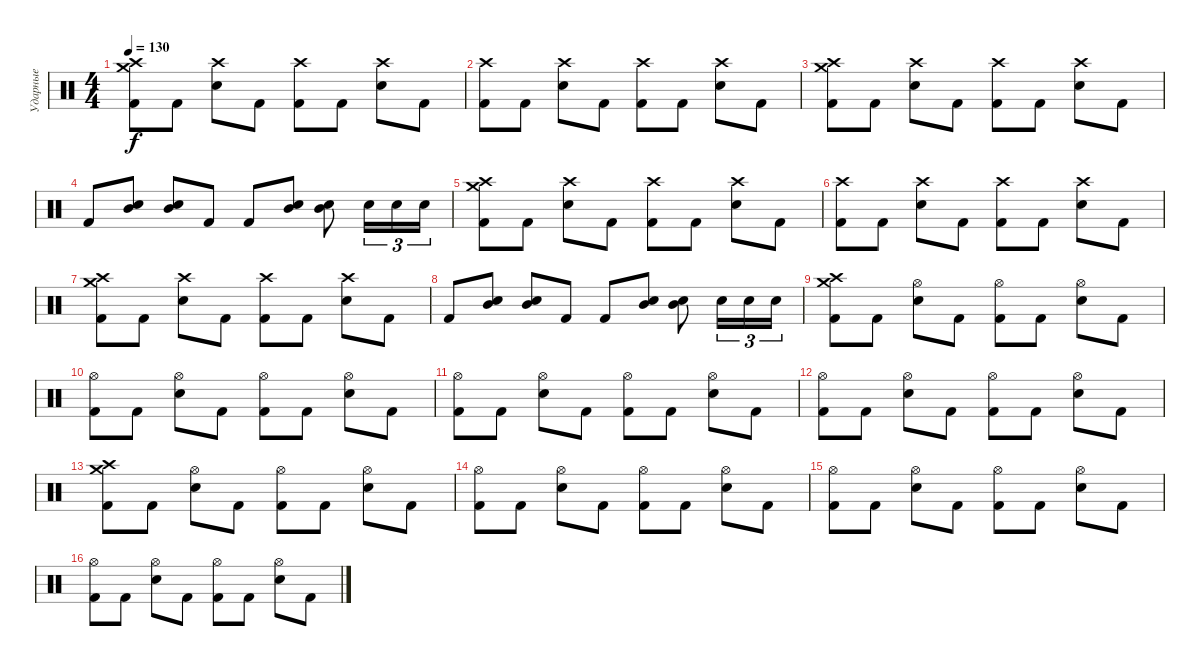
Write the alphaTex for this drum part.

\track ("Ударные" "Ударные") {instrument percussion}
\staff {score}
\articulation defaults
\ts (4 4)
\tempo 130
\clef neutral
\ks c
("Kick (hit) 2" "Crash medium (hit)" "Crash high (hit)").8{dy f} "Kick (hit) 2".8 ("Electric Snare (hit)" "Crash high (hit)").8 "Kick (hit) 2".8 ("Kick (hit) 2" "Crash high (hit)").8 "Kick (hit) 2".8 ("Electric Snare (hit)" "Crash high (hit)").8 "Kick (hit) 2".8 |
("Kick (hit) 2" "Crash high (hit)").8 "Kick (hit) 2".8 ("Electric Snare (hit)" "Crash high (hit)").8 "Kick (hit) 2".8 ("Kick (hit) 2" "Crash high (hit)").8 "Kick (hit) 2".8 ("Electric Snare (hit)" "Crash high (hit)").8 "Kick (hit) 2".8 |
("Kick (hit) 2" "Crash medium (hit)" "Crash high (hit)").8 "Kick (hit) 2".8 ("Electric Snare (hit)" "Crash high (hit)").8 "Kick (hit) 2".8 ("Kick (hit) 2" "Crash high (hit)").8 "Kick (hit) 2".8 ("Electric Snare (hit)" "Crash high (hit)").8 "Kick (hit) 2".8 |
"Kick (hit) 2".8 ("Electric Snare (hit)" "Mid Tom (hit)").8 ("Electric Snare (hit)" "Mid Tom (hit)").8 "Kick (hit) 2".8 "Kick (hit) 2".8 ("Electric Snare (hit)" "Mid Tom (hit)").8 ("Electric Snare (hit)" "Mid Tom (hit)").8 "Electric Snare (hit)".16{tu (3 2)} "Electric Snare (hit)".16{tu (3 2)} "Electric Snare (hit)".16{tu (3 2)} |
("Kick (hit) 2" "Crash medium (hit)" "Crash high (hit)").8 "Kick (hit) 2".8 ("Electric Snare (hit)" "Crash high (hit)").8 "Kick (hit) 2".8 ("Kick (hit) 2" "Crash high (hit)").8 "Kick (hit) 2".8 ("Electric Snare (hit)" "Crash high (hit)").8 "Kick (hit) 2".8 |
("Kick (hit) 2" "Crash high (hit)").8 "Kick (hit) 2".8 ("Electric Snare (hit)" "Crash high (hit)").8 "Kick (hit) 2".8 ("Kick (hit) 2" "Crash high (hit)").8 "Kick (hit) 2".8 ("Electric Snare (hit)" "Crash high (hit)").8 "Kick (hit) 2".8 |
("Kick (hit) 2" "Crash medium (hit)" "Crash high (hit)").8 "Kick (hit) 2".8 ("Electric Snare (hit)" "Crash high (hit)").8 "Kick (hit) 2".8 ("Kick (hit) 2" "Crash high (hit)").8 "Kick (hit) 2".8 ("Electric Snare (hit)" "Crash high (hit)").8 "Kick (hit) 2".8 |
"Kick (hit) 2".8 ("Electric Snare (hit)" "Mid Tom (hit)").8 ("Electric Snare (hit)" "Mid Tom (hit)").8 "Kick (hit) 2".8 "Kick (hit) 2".8 ("Electric Snare (hit)" "Mid Tom (hit)").8 ("Electric Snare (hit)" "Mid Tom (hit)").8 "Electric Snare (hit)".16{tu (3 2)} "Electric Snare (hit)".16{tu (3 2)} "Electric Snare (hit)".16{tu (3 2)} |
("Kick (hit) 2" "Crash medium (hit)" "Crash high (hit)").8 "Kick (hit) 2".8 ("Electric Snare (hit)" "Hi-Hat (open)").8 "Kick (hit) 2".8 ("Kick (hit) 2" "Hi-Hat (open)").8 "Kick (hit) 2".8 ("Electric Snare (hit)" "Hi-Hat (open)").8 "Kick (hit) 2".8 |
("Kick (hit) 2" "Hi-Hat (open)").8 "Kick (hit) 2".8 ("Electric Snare (hit)" "Hi-Hat (open)").8 "Kick (hit) 2".8 ("Kick (hit) 2" "Hi-Hat (open)").8 "Kick (hit) 2".8 ("Electric Snare (hit)" "Hi-Hat (open)").8 "Kick (hit) 2".8 |
("Kick (hit) 2" "Hi-Hat (open)").8 "Kick (hit) 2".8 ("Electric Snare (hit)" "Hi-Hat (open)").8 "Kick (hit) 2".8 ("Kick (hit) 2" "Hi-Hat (open)").8 "Kick (hit) 2".8 ("Electric Snare (hit)" "Hi-Hat (open)").8 "Kick (hit) 2".8 |
("Kick (hit) 2" "Hi-Hat (open)").8 "Kick (hit) 2".8 ("Electric Snare (hit)" "Hi-Hat (open)").8 "Kick (hit) 2".8 ("Kick (hit) 2" "Hi-Hat (open)").8 "Kick (hit) 2".8 ("Electric Snare (hit)" "Hi-Hat (open)").8 "Kick (hit) 2".8 |
("Kick (hit) 2" "Crash medium (hit)" "Crash high (hit)").8 "Kick (hit) 2".8 ("Electric Snare (hit)" "Hi-Hat (open)").8 "Kick (hit) 2".8 ("Kick (hit) 2" "Hi-Hat (open)").8 "Kick (hit) 2".8 ("Electric Snare (hit)" "Hi-Hat (open)").8 "Kick (hit) 2".8 |
("Kick (hit) 2" "Hi-Hat (open)").8 "Kick (hit) 2".8 ("Electric Snare (hit)" "Hi-Hat (open)").8 "Kick (hit) 2".8 ("Kick (hit) 2" "Hi-Hat (open)").8 "Kick (hit) 2".8 ("Electric Snare (hit)" "Hi-Hat (open)").8 "Kick (hit) 2".8 |
("Kick (hit) 2" "Hi-Hat (open)").8 "Kick (hit) 2".8 ("Electric Snare (hit)" "Hi-Hat (open)").8 "Kick (hit) 2".8 ("Kick (hit) 2" "Hi-Hat (open)").8 "Kick (hit) 2".8 ("Electric Snare (hit)" "Hi-Hat (open)").8 "Kick (hit) 2".8 |
("Kick (hit) 2" "Hi-Hat (open)").8 "Kick (hit) 2".8 ("Electric Snare (hit)" "Hi-Hat (open)").8 "Kick (hit) 2".8 ("Kick (hit) 2" "Hi-Hat (open)").8 "Kick (hit) 2".8 ("Electric Snare (hit)" "Hi-Hat (open)").8 "Kick (hit) 2".8
